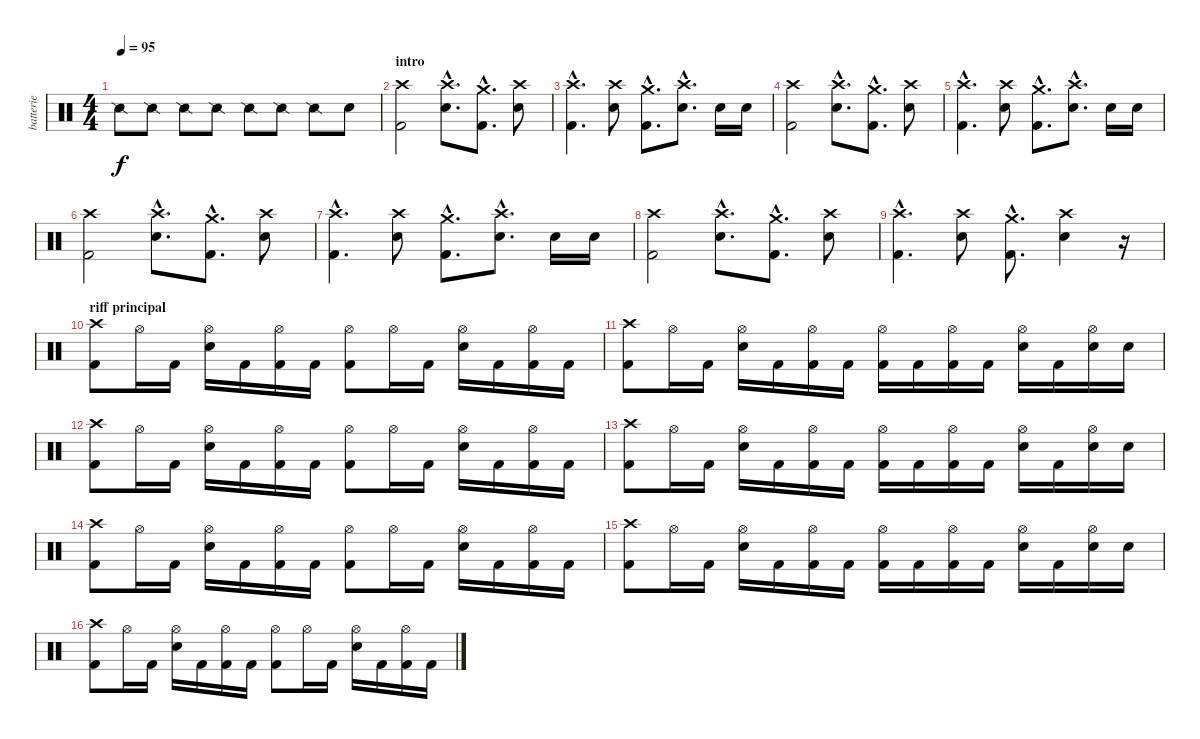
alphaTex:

\track ("batterie" "batterie") {instrument percussion}
\staff {score}
\articulation defaults
\ts (4 4)
\tempo 95
\clef neutral
\ks c "Snare (side stick) 2".8{dy f} "Snare (side stick) 2".8 "Snare (side stick) 2".8 "Snare (side stick) 2".8 "Snare (side stick) 2".8 "Snare (side stick) 2".8 "Snare (side stick) 2".8 "Snare (hit) 2".8
|
\section ("" "intro")
("Crash high (hit)" "Kick (hit) 2").2 ("Crash high (hit)"{hac} "Electric Snare (hit)"{hac}).8{d} ("Crash medium (hit)"{hac} "Kick (hit) 2"{hac}).8{d} ("Crash high (hit)" "Electric Snare (hit)").8 |
("Crash high (hit)"{hac} "Kick (hit) 2"{hac}).4{d} ("Crash high (hit)" "Electric Snare (hit)").8 ("Crash medium (hit)"{hac} "Kick (hit) 2"{hac}).8{d} ("Crash high (hit)"{hac} "Electric Snare (hit)"{hac}).8{d} "Electric Snare (hit)".16 "Electric Snare (hit)".16 |
("Crash high (hit)" "Kick (hit) 2").2 ("Crash high (hit)"{hac} "Electric Snare (hit)"{hac}).8{d} ("Crash medium (hit)"{hac} "Kick (hit) 2"{hac}).8{d} ("Crash high (hit)" "Electric Snare (hit)").8 |
("Crash high (hit)"{hac} "Kick (hit) 2"{hac}).4{d} ("Crash high (hit)" "Electric Snare (hit)").8 ("Crash medium (hit)"{hac} "Kick (hit) 2"{hac}).8{d} ("Crash high (hit)"{hac} "Electric Snare (hit)"{hac}).8{d} "Electric Snare (hit)".16 "Electric Snare (hit)".16 |
("Crash high (hit)" "Kick (hit) 2").2 ("Crash high (hit)"{hac} "Electric Snare (hit)"{hac}).8{d} ("Crash medium (hit)"{hac} "Kick (hit) 2"{hac}).8{d} ("Crash high (hit)" "Electric Snare (hit)").8 |
("Crash high (hit)"{hac} "Kick (hit) 2"{hac}).4{d} ("Crash high (hit)" "Electric Snare (hit)").8 ("Crash medium (hit)"{hac} "Kick (hit) 2"{hac}).8{d} ("Crash high (hit)"{hac} "Electric Snare (hit)"{hac}).8{d} "Electric Snare (hit)".16 "Electric Snare (hit)".16 |
("Crash high (hit)" "Kick (hit) 2").2 ("Crash high (hit)"{hac} "Electric Snare (hit)"{hac}).8{d} ("Crash medium (hit)"{hac} "Kick (hit) 2"{hac}).8{d} ("Crash high (hit)" "Electric Snare (hit)").8 |
("Crash high (hit)"{hac} "Kick (hit) 2"{hac}).4{d} ("Crash high (hit)" "Electric Snare (hit)").8 ("Crash medium (hit)"{hac} "Kick (hit) 2"{hac}).8{d} ("Crash high (hit)" "Electric Snare (hit)").4 r.16 |
\section ("" "riff principal")
("Crash high (hit)" "Kick (hit) 2").8 "Hi-Hat (open)".16 "Kick (hit) 2".16 ("Electric Snare (hit)" "Hi-Hat (open)").16 "Kick (hit) 2".16 ("Kick (hit) 2" "Hi-Hat (open)").16 "Kick (hit) 2".16 ("Kick (hit) 2" "Hi-Hat (open)").8 "Hi-Hat (open)".16 "Kick (hit) 2".16 ("Electric Snare (hit)" "Hi-Hat (open)").16 "Kick (hit) 2".16 ("Kick (hit) 2" "Hi-Hat (open)").16 "Kick (hit) 2".16 |
("Crash high (hit)" "Kick (hit) 2").8 "Hi-Hat (open)".16 "Kick (hit) 2".16 ("Electric Snare (hit)" "Hi-Hat (open)").16 "Kick (hit) 2".16 ("Kick (hit) 2" "Hi-Hat (open)").16 "Kick (hit) 2".16 ("Kick (hit) 2" "Hi-Hat (open)").16 "Kick (hit) 2".16 ("Kick (hit) 2" "Hi-Hat (open)").16 "Kick (hit) 2".16 ("Electric Snare (hit)" "Hi-Hat (open)").16 "Kick (hit) 2".16 ("Electric Snare (hit)" "Hi-Hat (open)").16 "Electric Snare (hit)".16 |
("Crash high (hit)" "Kick (hit) 2").8 "Hi-Hat (open)".16 "Kick (hit) 2".16 ("Electric Snare (hit)" "Hi-Hat (open)").16 "Kick (hit) 2".16 ("Kick (hit) 2" "Hi-Hat (open)").16 "Kick (hit) 2".16 ("Kick (hit) 2" "Hi-Hat (open)").8 "Hi-Hat (open)".16 "Kick (hit) 2".16 ("Electric Snare (hit)" "Hi-Hat (open)").16 "Kick (hit) 2".16 ("Kick (hit) 2" "Hi-Hat (open)").16 "Kick (hit) 2".16 |
("Crash high (hit)" "Kick (hit) 2").8 "Hi-Hat (open)".16 "Kick (hit) 2".16 ("Electric Snare (hit)" "Hi-Hat (open)").16 "Kick (hit) 2".16 ("Kick (hit) 2" "Hi-Hat (open)").16 "Kick (hit) 2".16 ("Kick (hit) 2" "Hi-Hat (open)").16 "Kick (hit) 2".16 ("Kick (hit) 2" "Hi-Hat (open)").16 "Kick (hit) 2".16 ("Electric Snare (hit)" "Hi-Hat (open)").16 "Kick (hit) 2".16 ("Electric Snare (hit)" "Hi-Hat (open)").16 "Electric Snare (hit)".16 |
("Crash high (hit)" "Kick (hit) 2").8 "Hi-Hat (open)".16 "Kick (hit) 2".16 ("Electric Snare (hit)" "Hi-Hat (open)").16 "Kick (hit) 2".16 ("Kick (hit) 2" "Hi-Hat (open)").16 "Kick (hit) 2".16 ("Kick (hit) 2" "Hi-Hat (open)").8 "Hi-Hat (open)".16 "Kick (hit) 2".16 ("Electric Snare (hit)" "Hi-Hat (open)").16 "Kick (hit) 2".16 ("Kick (hit) 2" "Hi-Hat (open)").16 "Kick (hit) 2".16 |
("Crash high (hit)" "Kick (hit) 2").8 "Hi-Hat (open)".16 "Kick (hit) 2".16 ("Electric Snare (hit)" "Hi-Hat (open)").16 "Kick (hit) 2".16 ("Kick (hit) 2" "Hi-Hat (open)").16 "Kick (hit) 2".16 ("Kick (hit) 2" "Hi-Hat (open)").16 "Kick (hit) 2".16 ("Kick (hit) 2" "Hi-Hat (open)").16 "Kick (hit) 2".16 ("Electric Snare (hit)" "Hi-Hat (open)").16 "Kick (hit) 2".16 ("Electric Snare (hit)" "Hi-Hat (open)").16 "Electric Snare (hit)".16 |
("Crash high (hit)" "Kick (hit) 2").8 "Hi-Hat (open)".16 "Kick (hit) 2".16 ("Electric Snare (hit)" "Hi-Hat (open)").16 "Kick (hit) 2".16 ("Kick (hit) 2" "Hi-Hat (open)").16 "Kick (hit) 2".16 ("Kick (hit) 2" "Hi-Hat (open)").8 "Hi-Hat (open)".16 "Kick (hit) 2".16 ("Electric Snare (hit)" "Hi-Hat (open)").16 "Kick (hit) 2".16 ("Kick (hit) 2" "Hi-Hat (open)").16 "Kick (hit) 2".16
